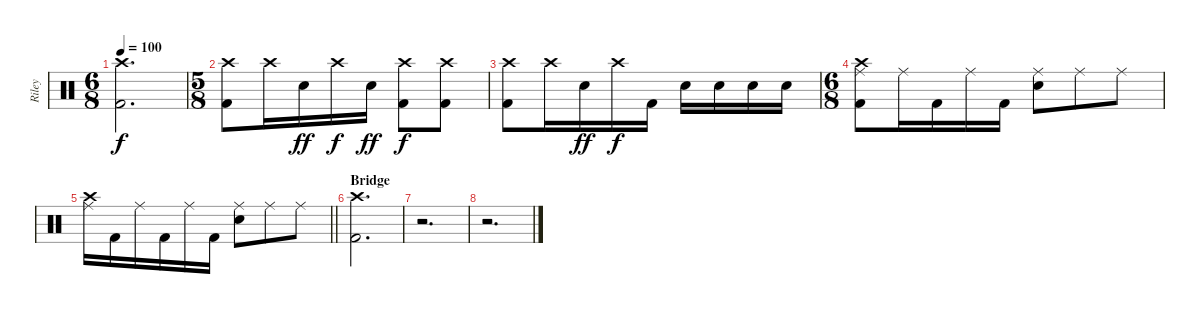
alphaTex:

\track ("Riley" "Riley") {instrument percussion}
\staff {score}
\articulation defaults
\ts (6 8)
\tempo 100
\clef neutral
\ks c
("Crash high (hit)" "Kick (hit) 2").2{d dy f} |
\ts (5 8)
("Crash high (hit)" "Kick (hit) 2").8 "Crash high (hit)".16 "Electric Snare (hit)".16{dy ff} "Crash high (hit)".16{dy f} "Electric Snare (hit)".16{dy ff} ("Crash high (hit)" "Kick (hit) 2").8{dy f} ("Crash high (hit)" "Kick (hit) 2").8 |
("Crash high (hit)" "Kick (hit) 2").8 "Crash high (hit)".16 "Electric Snare (hit)".16{dy ff} "Crash high (hit)".16{dy f} "Kick (hit) 2".16 "Electric Snare (hit)".16 "Electric Snare (hit)".16 "Electric Snare (hit)".16 "Electric Snare (hit)".16 |
\ts (6 8)
("Crash high (hit)" "Ride (middle)" "Kick (hit) 2").8 "Ride (middle)".16 "Kick (hit) 2".16 "Ride (middle)".16 "Kick (hit) 2".16 ("Ride (middle)" "Electric Snare (hit)").8 "Ride (middle)".8 "Ride (middle)".8 |
\barLineRight lightlight
("Crash high (hit)" "Ride (middle)").16 "Kick (hit) 2".16 "Ride (middle)".16 "Kick (hit) 2".16 "Ride (middle)".16 "Kick (hit) 2".16 ("Ride (middle)" "Electric Snare (hit)").8 "Ride (middle)".8 "Ride (middle)".8 |
\section ("" "Bridge")
("Crash high (hit)" "Kick (hit) 2").2{d} |
r.2{d} |
r.2{d}
